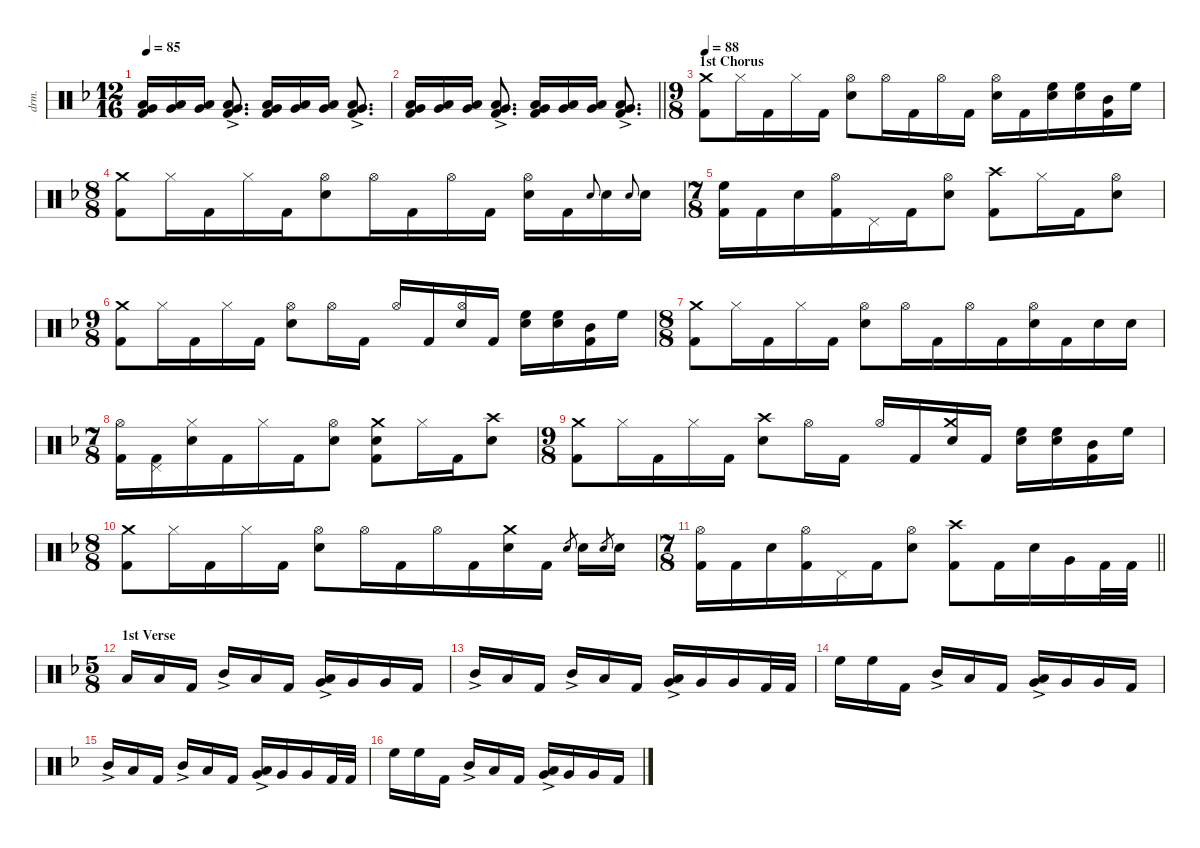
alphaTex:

\defaultSystemsLayout 4
\hideDynamics
\bracketExtendMode nobrackets
\otherSystemsTrackNameOrientation horizontal
\track ("Drums" "drm.") {instrument percussion}
\staff {score}
\articulation defaults
\ts (12 16)
\tempo 85
\clef neutral
\ks dminor
("Low Tom (hit)"{acc forcenatural} "Very Low Tom (hit)"{acc forcenatural} "Kick (hit) 2"{acc forcenatural}).16{dy f beam Up} ("Low Tom (hit)"{acc forcenatural} "Very Low Tom (hit)"{acc forcenatural}).16{beam Up} ("Low Tom (hit)"{acc forcenatural} "Very Low Tom (hit)"{acc forcenatural}).16{beam Up} ("Low Tom (hit)"{ac acc forcenatural} "Very Low Tom (hit)"{ac acc forcenatural} "Kick (hit) 2"{acc forcenatural}).8{d beam Up} ("Low Tom (hit)"{acc forcenatural} "Very Low Tom (hit)"{acc forcenatural} "Kick (hit) 2"{acc forcenatural}).16{beam Up} ("Low Tom (hit)"{acc forcenatural} "Very Low Tom (hit)"{acc forcenatural}).16{beam Up} ("Low Tom (hit)"{acc forcenatural} "Very Low Tom (hit)"{acc forcenatural}).16{beam Up} ("Low Tom (hit)"{ac acc forcenatural} "Very Low Tom (hit)"{ac acc forcenatural} "Kick (hit) 2"{acc forcenatural}).8{d beam Up} |
\barLineRight lightlight
("Low Tom (hit)"{acc forcenatural} "Very Low Tom (hit)"{acc forcenatural} "Kick (hit) 2"{acc forcenatural}).16{beam Up} ("Low Tom (hit)"{acc forcenatural} "Very Low Tom (hit)"{acc forcenatural}).16{beam Up} ("Low Tom (hit)"{acc forcenatural} "Very Low Tom (hit)"{acc forcenatural}).16{beam Up} ("Low Tom (hit)"{ac acc forcenatural} "Very Low Tom (hit)"{ac acc forcenatural} "Kick (hit) 2"{acc forcenatural}).8{d beam Up} ("Low Tom (hit)"{acc forcenatural} "Very Low Tom (hit)"{acc forcenatural} "Kick (hit) 2"{acc forcenatural}).16{beam Up} ("Low Tom (hit)"{acc forcenatural} "Very Low Tom (hit)"{acc forcenatural}).16{beam Up} ("Low Tom (hit)"{acc forcenatural} "Very Low Tom (hit)"{acc forcenatural}).16{beam Up} ("Low Tom (hit)"{ac acc forcenatural} "Very Low Tom (hit)"{ac acc forcenatural} "Kick (hit) 2"{acc forcenatural}).8{d beam Up} |
\ts (9 8)
\beaming (8 3 3 3)
\section ("" "1st Chorus")
\tempo 88
("Crash medium (hit)"{acc forcenatural} "Kick (hit) 2"{acc forcenatural}).8{beam Down} "Hi-Hat (closed)"{acc forcenatural}.16{beam Down} "Kick (hit) 2"{acc forcenatural}.16{beam Down} "Hi-Hat (closed)"{acc forcenatural}.16{beam Down} "Kick (hit) 2"{acc forcenatural}.16{beam Down} ("Hi-Hat (open)"{acc forcenatural} "Snare (hit) 2"{acc forcenatural}).8{beam Down} "Hi-Hat (open)"{acc forcenatural}.16{beam Down} "Kick (hit) 2"{acc forcenatural}.16{beam Down} "Hi-Hat (open)"{acc forcenatural}.16{beam Down} "Kick (hit) 2"{acc forcenatural}.16{beam Down} ("Hi-Hat (open)"{acc forcenatural} "Snare (hit) 2"{acc forcenatural}).16{beam Down} "Kick (hit) 2"{acc forcenatural}.16{beam Down} ("High Floor Tom (hit)"{acc forcenatural} "Snare (hit) 2"{acc forcenatural}).16{beam Down} ("High Floor Tom (hit)"{acc forcenatural} "Snare (hit) 2"{acc forcenatural}).16{beam Down} ("Mid Tom (hit)"{acc forcenatural} "Kick (hit) 2"{acc forcenatural}).16{beam Down} "High Floor Tom (hit)"{acc forcenatural}.16{beam Down} |
\ts (8 8)
\beaming (8 2 2 2 2)
("Crash medium (hit)"{acc forcenatural} "Kick (hit) 2"{acc forcenatural}).8{beam Down beam merge} "Hi-Hat (closed)"{acc forcenatural}.16{beam Down} "Kick (hit) 2"{acc forcenatural}.16{beam Down beam merge} "Hi-Hat (closed)"{acc forcenatural}.16{beam Down} "Kick (hit) 2"{acc forcenatural}.16{beam Down} ("Hi-Hat (open)"{acc forcenatural} "Snare (hit) 2"{acc forcenatural}).8{beam Down beam merge} "Hi-Hat (open)"{acc forcenatural}.16{beam Down} "Kick (hit) 2"{acc forcenatural}.16{beam Down beam merge} "Hi-Hat (open)"{acc forcenatural}.16{beam Down} "Kick (hit) 2"{acc forcenatural}.16{beam Down} ("Hi-Hat (open)"{acc forcenatural} "Snare (hit) 2"{acc forcenatural}).16{beam Down} "Kick (hit) 2"{acc forcenatural}.16{beam Down} "Snare (hit) 2"{acc forcenatural}.8{gr onbeat dy mf beam Up beam merge} "Snare (hit) 2"{acc forcenatural}.16{dy f beam Down} "Snare (hit) 2"{acc forcenatural}.8{gr onbeat dy mf beam Up beam merge} "Snare (hit) 2"{acc forcenatural}.16{dy f beam Down} |
\ts (7 8)
\beaming (8 3 2 2)
("High Floor Tom (hit)"{acc forcenatural} "Kick (hit) 2"{acc forcenatural}).16{beam Down} "Kick (hit) 2"{acc forcenatural}.16{beam Down beam merge} "Snare (hit) 2"{acc forcenatural}.16{beam Down} ("Hi-Hat (open)"{acc forcenatural} "Kick (hit) 2"{acc forcenatural}).16{beam Down beam merge} "Pedal Hi-Hat (hit)"{acc forcenatural}.16{beam Down} "Kick (hit) 2"{acc forcenatural}.16{beam Down beam merge} ("Hi-Hat (open)"{acc forcenatural} "Snare (hit) 2"{acc forcenatural}).8{beam Down beam split} ("Crash high (hit)"{acc forcenatural} "Kick (hit) 2"{acc forcenatural}).8{beam Down beam merge} "Hi-Hat (closed)"{acc forcenatural}.16{beam Down} "Kick (hit) 2"{acc forcenatural}.16{beam Down beam merge} ("Hi-Hat (open)"{acc forcenatural} "Snare (hit) 2"{acc forcenatural}).8{beam Down} |
\ts (9 8)
\beaming (8 3 2 2 2)
("Crash medium (hit)"{acc forcenatural} "Kick (hit) 2"{acc forcenatural}).8{beam Down} "Hi-Hat (closed)"{acc forcenatural}.16{beam Down} "Kick (hit) 2"{acc forcenatural}.16{beam Down} "Hi-Hat (closed)"{acc forcenatural}.16{beam Down} "Kick (hit) 2"{acc forcenatural}.16{beam Down} ("Hi-Hat (open)"{acc forcenatural} "Snare (hit) 2"{acc forcenatural}).8{beam Down} "Hi-Hat (open)"{acc forcenatural}.16{beam Down} "Kick (hit) 2"{acc forcenatural}.16{beam Down} "Hi-Hat (open)"{acc forcenatural}.16{beam Up} "Kick (hit) 2"{acc forcenatural}.16{beam Up} ("Hi-Hat (open)"{acc forcenatural} "Snare (hit) 2"{acc forcenatural}).16{beam Up} "Kick (hit) 2"{acc forcenatural}.16{beam Up} ("High Floor Tom (hit)"{acc forcenatural} "Snare (hit) 2"{acc forcenatural}).16{beam Down} ("High Floor Tom (hit)"{acc forcenatural} "Snare (hit) 2"{acc forcenatural}).16{beam Down} ("Mid Tom (hit)"{acc forcenatural} "Kick (hit) 2"{acc forcenatural}).16{beam Down} "High Floor Tom (hit)"{acc forcenatural}.16{beam Down} |
\ts (8 8)
\beaming (8 3 2 2 1)
("Crash medium (hit)"{acc forcenatural} "Kick (hit) 2"{acc forcenatural}).8{beam Down beam merge} "Hi-Hat (closed)"{acc forcenatural}.16{beam Down} "Kick (hit) 2"{acc forcenatural}.16{beam Down beam merge} "Hi-Hat (closed)"{acc forcenatural}.16{beam Down} "Kick (hit) 2"{acc forcenatural}.16{beam Down} ("Hi-Hat (open)"{acc forcenatural} "Snare (hit) 2"{acc forcenatural}).8{beam Down beam merge} "Hi-Hat (open)"{acc forcenatural}.16{beam Down} "Kick (hit) 2"{acc forcenatural}.16{beam Down beam merge} "Hi-Hat (open)"{acc forcenatural}.16{beam Down} "Kick (hit) 2"{acc forcenatural}.16{beam Down} ("Hi-Hat (open)"{acc forcenatural} "Snare (hit) 2"{acc forcenatural}).16{beam Down} "Kick (hit) 2"{acc forcenatural}.16{beam Down beam merge} "Snare (hit) 2"{acc forcenatural}.16{beam Down beam merge} "Snare (hit) 2"{acc forcenatural}.16{beam Down} |
\ts (7 8)
\beaming (8 3 2 2)
("Hi-Hat (open)"{acc forcenatural} "Kick (hit) 2"{acc forcenatural}).16{beam Down} ("Pedal Hi-Hat (hit)"{acc forcenatural} "Kick (hit) 2"{acc forcenatural}).16{beam Down beam merge} ("Hi-Hat (closed)"{acc forcenatural} "Snare (hit) 2"{acc forcenatural}).16{beam Down} "Kick (hit) 2"{acc forcenatural}.16{beam Down beam merge} "Hi-Hat (closed)"{acc forcenatural}.16{beam Down} "Kick (hit) 2"{acc forcenatural}.16{beam Down beam merge} ("Hi-Hat (open)"{acc forcenatural} "Snare (hit) 2"{acc forcenatural}).8{beam Down beam split} ("Crash medium (hit)"{acc forcenatural} "Snare (hit) 2"{acc forcenatural} "Kick (hit) 2"{acc forcenatural}).8{beam Down beam merge} "Hi-Hat (closed)"{acc forcenatural}.16{beam Down} "Kick (hit) 2"{acc forcenatural}.16{beam Down beam merge} ("Crash high (hit)"{acc forcenatural} "Snare (hit) 2"{acc forcenatural}).8{beam Down} |
\ts (9 8)
\beaming (8 3 2 2 2)
("Crash medium (hit)"{acc forcenatural} "Kick (hit) 2"{acc forcenatural}).8{beam Down} "Hi-Hat (closed)"{acc forcenatural}.16{beam Down} "Kick (hit) 2"{acc forcenatural}.16{beam Down} "Hi-Hat (closed)"{acc forcenatural}.16{beam Down} "Kick (hit) 2"{acc forcenatural}.16{beam Down} ("Crash high (hit)"{acc forcenatural} "Snare (hit) 2"{acc forcenatural}).8{beam Down} "Hi-Hat (open)"{acc forcenatural}.16{beam Down} "Kick (hit) 2"{acc forcenatural}.16{beam Down} "Hi-Hat (open)"{acc forcenatural}.16{beam Up} "Kick (hit) 2"{acc forcenatural}.16{beam Up} ("Crash medium (hit)"{acc forcenatural} "Snare (hit) 2"{acc forcenatural}).16{beam Up} "Kick (hit) 2"{acc forcenatural}.16{beam Up} ("High Floor Tom (hit)"{acc forcenatural} "Snare (hit) 2"{acc forcenatural}).16{beam Down} ("High Floor Tom (hit)"{acc forcenatural} "Snare (hit) 2"{acc forcenatural}).16{beam Down} ("Mid Tom (hit)"{acc forcenatural} "Kick (hit) 2"{acc forcenatural}).16{beam Down} "High Floor Tom (hit)"{acc forcenatural}.16{beam Down} |
\ts (8 8)
\beaming (8 3 2 2 1)
("Crash medium (hit)"{acc forcenatural} "Kick (hit) 2"{acc forcenatural}).8{beam Down beam merge} "Hi-Hat (closed)"{acc forcenatural}.16{beam Down beam merge} "Kick (hit) 2"{acc forcenatural}.16{beam Down beam merge} "Hi-Hat (closed)"{acc forcenatural}.16{beam Down beam merge} "Kick (hit) 2"{acc forcenatural}.16{beam Down beam split} ("Hi-Hat (open)"{acc forcenatural} "Snare (hit) 2"{acc forcenatural}).8{beam Down beam merge} "Hi-Hat (open)"{acc forcenatural}.16{beam Down} "Kick (hit) 2"{acc forcenatural}.16{beam Down beam merge} "Hi-Hat (open)"{acc forcenatural}.16{beam Down} "Kick (hit) 2"{acc forcenatural}.16{beam Down} ("Crash medium (hit)"{acc forcenatural} "Snare (hit) 2"{acc forcenatural}).16{beam Down} "Kick (hit) 2"{acc forcenatural}.16{beam Down} "Electric Snare (hit)"{acc forcenatural}.8{gr dy p beam Up beam merge} "Snare (hit) 2"{acc forcenatural}.16{dy f beam Down} "Electric Snare (hit)"{acc forcenatural}.8{gr dy p beam Up} "Snare (hit) 2"{acc forcenatural}.16{dy f beam Down} |
\ts (7 8)
\beaming (8 3 2 2)
\barLineRight lightlight
("Hi-Hat (open)"{acc forcenatural} "Kick (hit) 2"{acc forcenatural}).16{beam Down} "Kick (hit) 2"{acc forcenatural}.16{beam Down beam merge} "Snare (hit) 2"{acc forcenatural}.16{beam Down} ("Hi-Hat (open)"{acc forcenatural} "Kick (hit) 2"{acc forcenatural}).16{beam Down beam merge} "Pedal Hi-Hat (hit)"{acc forcenatural}.16{beam Down} "Kick (hit) 2"{acc forcenatural}.16{beam Down beam merge} ("Hi-Hat (open)"{acc forcenatural} "Snare (hit) 2"{acc forcenatural}).8{beam Down beam split} ("Crash high (hit)"{acc forcenatural} "Kick (hit) 2"{acc forcenatural}).8{beam Down beam merge} "Kick (hit) 2"{acc forcenatural}.16{beam Down} "Snare (hit) 2"{acc forcenatural}.16{beam Down beam merge} "Very Low Tom (hit)"{acc forcenatural}.16{beam Down} "Kick (hit) 2"{acc forcenatural}.32{beam Down} "Kick (hit) 2"{acc forcenatural}.32{beam Down} |
\ts (5 8)
\beaming (8 3 2)
\section ("" "1st Verse")
"Low Tom (hit)"{acc forcenatural}.16{beam Up} "Low Tom (hit)"{acc forcenatural}.16{beam Up beam merge} "Kick (hit) 2"{acc forcenatural}.16{beam Up beam split} "Mid Tom (hit)"{ac acc forcenatural}.16{beam Up beam merge} "Low Tom (hit)"{acc forcenatural}.16{beam Up} "Kick (hit) 2"{acc forcenatural}.16{beam Up beam split} ("Low Tom (hit)"{ac acc forcenatural} "Very Low Tom (hit)"{acc forcenatural}).16{beam Up} "Very Low Tom (hit)"{acc forcenatural}.16{beam Up beam merge} "Very Low Tom (hit)"{acc forcenatural}.16{beam Up} "Kick (hit) 2"{acc forcenatural}.16{beam Up} |
"Mid Tom (hit)"{ac acc forcenatural}.16{beam Up} "Low Tom (hit)"{acc forcenatural}.16{beam Up beam merge} "Kick (hit) 2"{acc forcenatural}.16{beam Up beam split} "Mid Tom (hit)"{ac acc forcenatural}.16{beam Up beam merge} "Low Tom (hit)"{acc forcenatural}.16{beam Up} "Kick (hit) 2"{acc forcenatural}.16{beam Up beam split} ("Low Tom (hit)"{ac acc forcenatural} "Very Low Tom (hit)"{acc forcenatural}).16{beam Up} "Very Low Tom (hit)"{acc forcenatural}.16{beam Up beam merge} "Very Low Tom (hit)"{acc forcenatural}.16{beam Up} "Kick (hit) 2"{acc forcenatural}.32{beam Up} "Kick (hit) 2"{acc forcenatural}.32{beam Up} |
"High Floor Tom (hit)"{acc forcenatural}.16{beam Down} "High Floor Tom (hit)"{acc forcenatural}.16{beam Down beam merge} "Kick (hit) 2"{acc forcenatural}.16{beam Down beam split} "Mid Tom (hit)"{ac acc forcenatural}.16{beam Up beam merge} "Low Tom (hit)"{acc forcenatural}.16{beam Up} "Kick (hit) 2"{acc forcenatural}.16{beam Up beam split} ("Low Tom (hit)"{ac acc forcenatural} "Very Low Tom (hit)"{acc forcenatural}).16{beam Up} "Very Low Tom (hit)"{acc forcenatural}.16{beam Up beam merge} "Very Low Tom (hit)"{acc forcenatural}.16{beam Up} "Kick (hit) 2"{acc forcenatural}.16{beam Up} |
"Mid Tom (hit)"{ac acc forcenatural}.16{beam Up} "Low Tom (hit)"{acc forcenatural}.16{beam Up beam merge} "Kick (hit) 2"{acc forcenatural}.16{beam Up beam split} "Mid Tom (hit)"{ac acc forcenatural}.16{beam Up beam merge} "Low Tom (hit)"{acc forcenatural}.16{beam Up} "Kick (hit) 2"{acc forcenatural}.16{beam Up beam split} ("Low Tom (hit)"{ac acc forcenatural} "Very Low Tom (hit)"{acc forcenatural}).16{beam Up} "Very Low Tom (hit)"{acc forcenatural}.16{beam Up beam merge} "Very Low Tom (hit)"{acc forcenatural}.16{beam Up} "Kick (hit) 2"{acc forcenatural}.32{beam Up} "Kick (hit) 2"{acc forcenatural}.32{beam Up} |
"High Floor Tom (hit)"{acc forcenatural}.16{beam Down} "High Floor Tom (hit)"{acc forcenatural}.16{beam Down beam merge} "Kick (hit) 2"{acc forcenatural}.16{beam Down beam split} "Mid Tom (hit)"{ac acc forcenatural}.16{beam Up beam merge} "Low Tom (hit)"{acc forcenatural}.16{beam Up} "Kick (hit) 2"{acc forcenatural}.16{beam Up beam split} ("Low Tom (hit)"{ac acc forcenatural} "Very Low Tom (hit)"{acc forcenatural}).16{beam Up} "Very Low Tom (hit)"{acc forcenatural}.16{beam Up beam merge} "Very Low Tom (hit)"{acc forcenatural}.16{beam Up} "Kick (hit) 2"{acc forcenatural}.16{beam Up}
